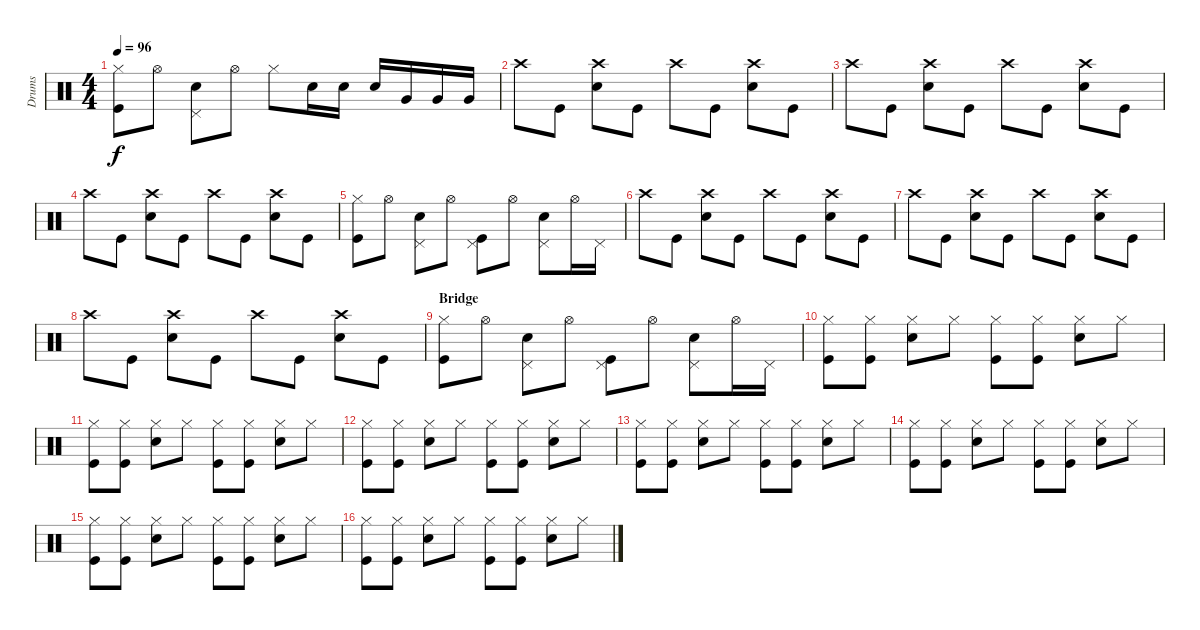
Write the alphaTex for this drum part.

\track ("Drums" "Drums") {instrument percussion}
\staff {score}
\articulation defaults
\ts (4 4)
\tempo 96
\clef neutral
\ks c
("Hi-Hat (closed)" "Kick (hit)").8{dy f} "Hi-Hat (open)".8 ("Pedal Hi-Hat (hit)" "Snare (hit) 2").8 "Hi-Hat (open)".8 "Hi-Hat (closed)".8 "Snare (hit) 2".16 "Snare (hit) 2".16 "Snare (hit) 2".16 "Very Low Tom (hit)".16 "Very Low Tom (hit)".16 "Very Low Tom (hit)".16 |
"Crash high (hit)".8 "Kick (hit)".8 ("Snare (hit) 2" "Crash high (hit)").8 "Kick (hit)".8 "Crash high (hit)".8 "Kick (hit)".8 ("Snare (hit) 2" "Crash high (hit)").8 "Kick (hit)".8 |
"Crash high (hit)".8 "Kick (hit)".8 ("Snare (hit) 2" "Crash high (hit)").8 "Kick (hit)".8 "Crash high (hit)".8 "Kick (hit)".8 ("Snare (hit) 2" "Crash high (hit)").8 "Kick (hit)".8 |
"Crash high (hit)".8 "Kick (hit)".8 ("Snare (hit) 2" "Crash high (hit)").8 "Kick (hit)".8 "Crash high (hit)".8 "Kick (hit)".8 ("Snare (hit) 2" "Crash high (hit)").8 "Kick (hit)".8 |
("Hi-Hat (closed)" "Kick (hit)").8 "Hi-Hat (open)".8 ("Pedal Hi-Hat (hit)" "Snare (hit) 2").8 "Hi-Hat (open)".8 ("Pedal Hi-Hat (hit)" "Kick (hit)").8 "Hi-Hat (open)".8 ("Pedal Hi-Hat (hit)" "Snare (hit) 2").8 "Hi-Hat (open)".16 "Pedal Hi-Hat (hit)".16 |
"Crash high (hit)".8 "Kick (hit)".8 ("Snare (hit) 2" "Crash high (hit)").8 "Kick (hit)".8 "Crash high (hit)".8 "Kick (hit)".8 ("Snare (hit) 2" "Crash high (hit)").8 "Kick (hit)".8 |
"Crash high (hit)".8 "Kick (hit)".8 ("Snare (hit) 2" "Crash high (hit)").8 "Kick (hit)".8 "Crash high (hit)".8 "Kick (hit)".8 ("Snare (hit) 2" "Crash high (hit)").8 "Kick (hit)".8 |
"Crash high (hit)".8 "Kick (hit)".8 ("Snare (hit) 2" "Crash high (hit)").8 "Kick (hit)".8 "Crash high (hit)".8 "Kick (hit)".8 ("Snare (hit) 2" "Crash high (hit)").8 "Kick (hit)".8 |
\section ("" "Bridge")
("Hi-Hat (closed)" "Kick (hit)").8 "Hi-Hat (open)".8 ("Pedal Hi-Hat (hit)" "Snare (hit) 2").8 "Hi-Hat (open)".8 ("Pedal Hi-Hat (hit)" "Kick (hit)").8 "Hi-Hat (open)".8 ("Pedal Hi-Hat (hit)" "Snare (hit) 2").8 "Hi-Hat (open)".16 "Pedal Hi-Hat (hit)".16 |
("Kick (hit)" "Hi-Hat (closed)").8 ("Kick (hit)" "Hi-Hat (closed)").8 ("Snare (hit) 2" "Hi-Hat (closed)").8 "Hi-Hat (closed)".8 ("Kick (hit)" "Hi-Hat (closed)").8 ("Kick (hit)" "Hi-Hat (closed)").8 ("Snare (hit) 2" "Hi-Hat (closed)").8 "Hi-Hat (closed)".8 |
("Kick (hit)" "Hi-Hat (closed)").8 ("Kick (hit)" "Hi-Hat (closed)").8 ("Snare (hit) 2" "Hi-Hat (closed)").8 "Hi-Hat (closed)".8 ("Kick (hit)" "Hi-Hat (closed)").8 ("Kick (hit)" "Hi-Hat (closed)").8 ("Snare (hit) 2" "Hi-Hat (closed)").8 "Hi-Hat (closed)".8 |
("Kick (hit)" "Hi-Hat (closed)").8 ("Kick (hit)" "Hi-Hat (closed)").8 ("Snare (hit) 2" "Hi-Hat (closed)").8 "Hi-Hat (closed)".8 ("Kick (hit)" "Hi-Hat (closed)").8 ("Kick (hit)" "Hi-Hat (closed)").8 ("Snare (hit) 2" "Hi-Hat (closed)").8 "Hi-Hat (closed)".8 |
("Kick (hit)" "Hi-Hat (closed)").8 ("Kick (hit)" "Hi-Hat (closed)").8 ("Snare (hit) 2" "Hi-Hat (closed)").8 "Hi-Hat (closed)".8 ("Kick (hit)" "Hi-Hat (closed)").8 ("Kick (hit)" "Hi-Hat (closed)").8 ("Snare (hit) 2" "Hi-Hat (closed)").8 "Hi-Hat (closed)".8 |
("Kick (hit)" "Hi-Hat (closed)").8 ("Kick (hit)" "Hi-Hat (closed)").8 ("Snare (hit) 2" "Hi-Hat (closed)").8 "Hi-Hat (closed)".8 ("Kick (hit)" "Hi-Hat (closed)").8 ("Kick (hit)" "Hi-Hat (closed)").8 ("Snare (hit) 2" "Hi-Hat (closed)").8 "Hi-Hat (closed)".8 |
("Kick (hit)" "Hi-Hat (closed)").8 ("Kick (hit)" "Hi-Hat (closed)").8 ("Snare (hit) 2" "Hi-Hat (closed)").8 "Hi-Hat (closed)".8 ("Kick (hit)" "Hi-Hat (closed)").8 ("Kick (hit)" "Hi-Hat (closed)").8 ("Snare (hit) 2" "Hi-Hat (closed)").8 "Hi-Hat (closed)".8 |
("Kick (hit)" "Hi-Hat (closed)").8 ("Kick (hit)" "Hi-Hat (closed)").8 ("Snare (hit) 2" "Hi-Hat (closed)").8 "Hi-Hat (closed)".8 ("Kick (hit)" "Hi-Hat (closed)").8 ("Kick (hit)" "Hi-Hat (closed)").8 ("Snare (hit) 2" "Hi-Hat (closed)").8 "Hi-Hat (closed)".8
